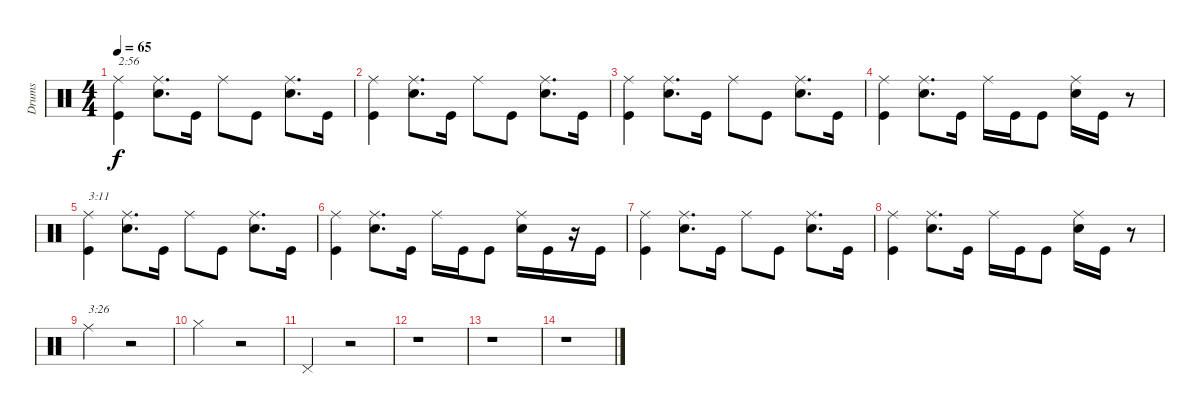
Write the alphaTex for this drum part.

\track ("Drums" "Drums") {instrument percussion}
\staff {score}
\articulation defaults
\ts (4 4)
\tempo 65
\clef neutral
\ks c
("Kick (hit)" "Ride (middle)").4{txt "2:56" dy f} ("Snare (hit) 2" "Ride (middle)").8{d} "Kick (hit)".16 "Ride (middle)".8 "Kick (hit)".8 ("Snare (hit) 2" "Ride (middle)").8{d} "Kick (hit)".16 |
("Kick (hit)" "Ride (middle)").4 ("Ride (middle)" "Snare (hit) 2").8{d} "Kick (hit)".16 "Ride (middle)".8 "Kick (hit)".8 ("Snare (hit) 2" "Ride (middle)").8{d} "Kick (hit)".16 |
("Kick (hit)" "Ride (middle)").4 ("Ride (middle)" "Snare (hit) 2").8{d} "Kick (hit)".16 "Ride (middle)".8 "Kick (hit)".8 ("Snare (hit) 2" "Ride (middle)").8{d} "Kick (hit)".16 |
("Kick (hit)" "Ride (middle)").4 ("Ride (middle)" "Snare (hit) 2").8{d} "Kick (hit)".16 "Ride (middle)".16 "Kick (hit)".16 "Kick (hit)".8 ("Snare (hit) 2" "Ride (middle)").16 "Kick (hit)".16 r.8 |
("Kick (hit)" "Ride (middle)").4{txt "3:11"} ("Ride (middle)" "Snare (hit) 2").8{d} "Kick (hit)".16 "Ride (middle)".8 "Kick (hit)".8 ("Snare (hit) 2" "Ride (middle)").8{d} "Kick (hit)".16 |
("Kick (hit)" "Ride (middle)").4 ("Ride (middle)" "Snare (hit) 2").8{d} "Kick (hit)".16 "Ride (middle)".16 "Kick (hit)".16 "Kick (hit)".8 ("Snare (hit) 2" "Ride (middle)").16 "Kick (hit)".16 r.16 "Kick (hit)".16 |
("Kick (hit)" "Ride (middle)").4 ("Ride (middle)" "Snare (hit) 2").8{d} "Kick (hit)".16 "Ride (middle)".8 "Kick (hit)".8 ("Snare (hit) 2" "Ride (middle)").8{d} "Kick (hit)".16 |
("Kick (hit)" "Ride (middle)").4 ("Ride (middle)" "Snare (hit) 2").8{d} "Kick (hit)".16 "Ride (middle)".16 "Kick (hit)".16 "Kick (hit)".8 ("Snare (hit) 2" "Ride (middle)").16 "Kick (hit)".16 r.8 |
"Ride (middle)".2{txt "3:26"} r.2 |
"Hi-Hat (closed)".2 r.2 |
"Pedal Hi-Hat (hit)".2 r.2 |
r.1 |
r.1 |
r.1
